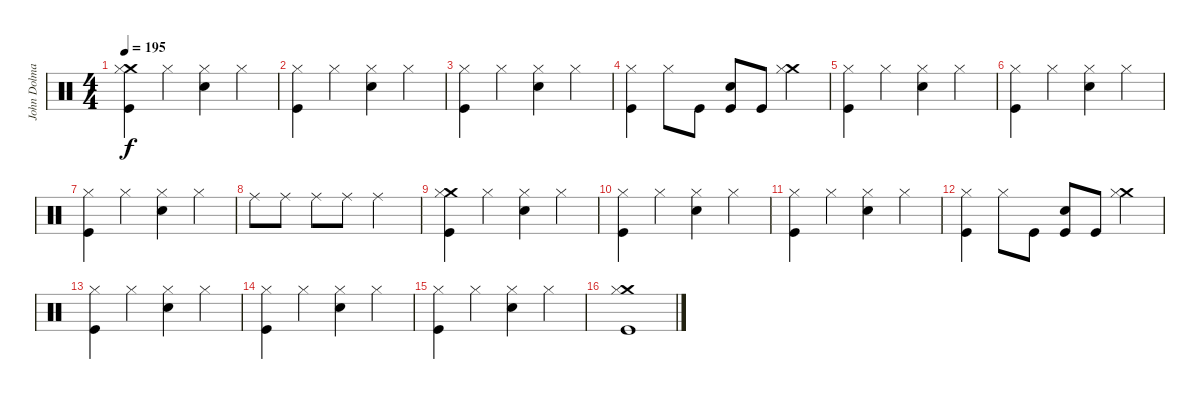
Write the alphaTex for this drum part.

\track ("John Dolmayan" "John Dolma") {instrument percussion}
\staff {score}
\articulation defaults
\ts (4 4)
\tempo 195
\clef neutral
\ks c
("Crash medium (hit)" "Hi-Hat (closed)" "Kick (hit)").4{dy f} "Hi-Hat (closed)".4 ("Hi-Hat (closed)" "Snare (hit) 2").4 "Hi-Hat (closed)".4 |
("Hi-Hat (closed)" "Kick (hit)").4 "Hi-Hat (closed)".4 ("Hi-Hat (closed)" "Snare (hit) 2").4 "Hi-Hat (closed)".4 |
("Hi-Hat (closed)" "Kick (hit)").4 "Hi-Hat (closed)".4 ("Hi-Hat (closed)" "Snare (hit) 2").4 "Hi-Hat (closed)".4 |
("Hi-Hat (closed)" "Kick (hit)").4 "Hi-Hat (closed)".8 "Kick (hit)".8 ("Snare (hit) 2" "Kick (hit)").8 "Kick (hit)".8 ("Crash medium (hit)" "Hi-Hat (closed)").4 |
("Hi-Hat (closed)" "Kick (hit)").4 "Hi-Hat (closed)".4 ("Hi-Hat (closed)" "Snare (hit) 2").4 "Hi-Hat (closed)".4 |
("Hi-Hat (closed)" "Kick (hit)").4 "Hi-Hat (closed)".4 ("Hi-Hat (closed)" "Snare (hit) 2").4 "Hi-Hat (closed)".4 |
("Hi-Hat (closed)" "Kick (hit)").4 "Hi-Hat (closed)".4 ("Hi-Hat (closed)" "Snare (hit) 2").4 "Hi-Hat (closed)".4 |
"Ride (middle)".8 "Ride (middle)".8 "Ride (middle)".8 "Ride (middle)".8 "Ride (middle)".2 |
("Crash medium (hit)" "Hi-Hat (closed)" "Kick (hit)").4 "Hi-Hat (closed)".4 ("Hi-Hat (closed)" "Snare (hit) 2").4 "Hi-Hat (closed)".4 |
("Hi-Hat (closed)" "Kick (hit)").4 "Hi-Hat (closed)".4 ("Hi-Hat (closed)" "Snare (hit) 2").4 "Hi-Hat (closed)".4 |
("Hi-Hat (closed)" "Kick (hit)").4 "Hi-Hat (closed)".4 ("Hi-Hat (closed)" "Snare (hit) 2").4 "Hi-Hat (closed)".4 |
("Hi-Hat (closed)" "Kick (hit)").4 "Hi-Hat (closed)".8 "Kick (hit)".8 ("Snare (hit) 2" "Kick (hit)").8 "Kick (hit)".8 ("Crash medium (hit)" "Hi-Hat (closed)").4 |
("Hi-Hat (closed)" "Kick (hit)").4 "Hi-Hat (closed)".4 ("Hi-Hat (closed)" "Snare (hit) 2").4 "Hi-Hat (closed)".4 |
("Hi-Hat (closed)" "Kick (hit)").4 "Hi-Hat (closed)".4 ("Hi-Hat (closed)" "Snare (hit) 2").4 "Hi-Hat (closed)".4 |
("Hi-Hat (closed)" "Kick (hit)").4 "Hi-Hat (closed)".4 ("Hi-Hat (closed)" "Snare (hit) 2").4 "Hi-Hat (closed)".4 |
("Crash medium (hit)" "Hi-Hat (closed)" "Kick (hit)").1
